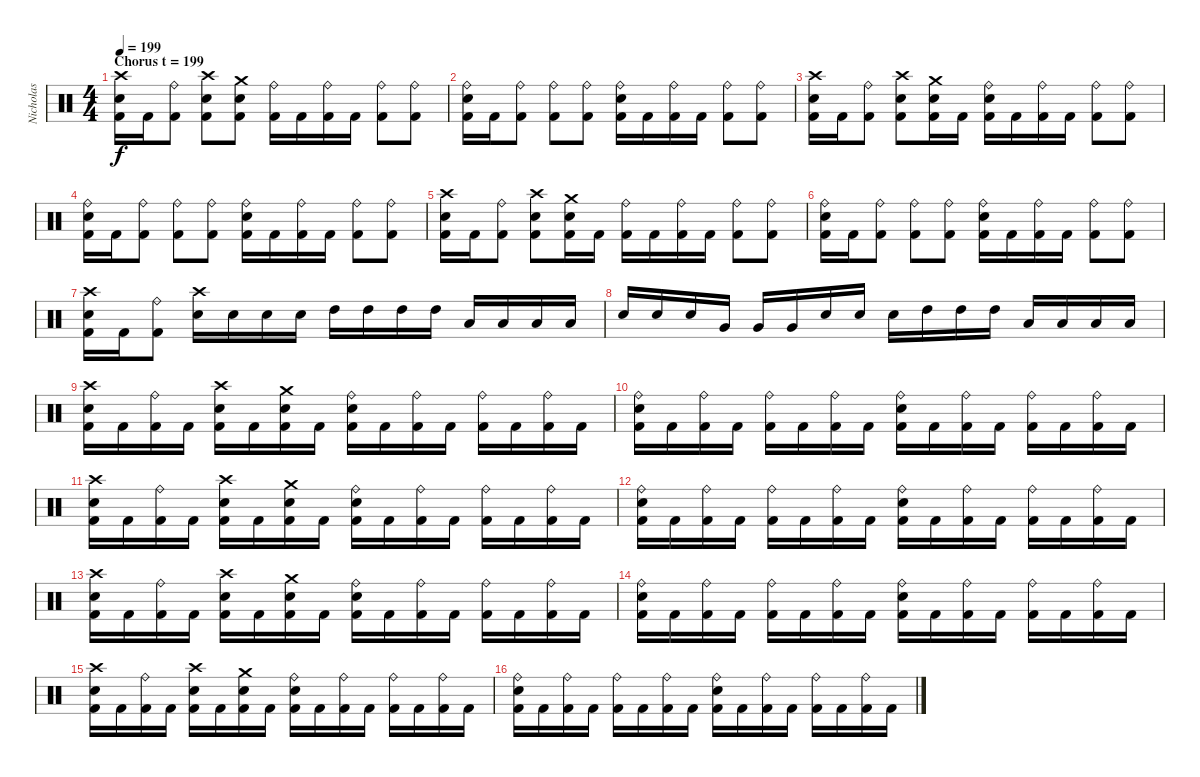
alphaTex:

\track ("Nicholas" "Nicholas") {instrument percussion}
\staff {score}
\articulation defaults
\ts (4 4)
\section ("" "Chorus t = 199")
\tempo 199
\clef neutral
\ks c
("Crash high (hit)" "Electric Snare (hit)" "Kick (hit) 2").16{dy f} "Kick (hit) 2".16 ("Ride (bell)" "Kick (hit) 2").8 ("Crash high (hit)" "Electric Snare (hit)" "Kick (hit) 2").8 ("Crash medium (hit)" "Electric Snare (hit)" "Kick (hit) 2").8 ("Ride (bell)" "Kick (hit) 2").16 "Kick (hit) 2".16 ("Ride (bell)" "Kick (hit) 2").16 "Kick (hit) 2".16 ("Ride (bell)" "Kick (hit) 2").8 ("Ride (bell)" "Kick (hit) 2").8 |
("Ride (bell)" "Electric Snare (hit)" "Kick (hit) 2").16 "Kick (hit) 2".16 ("Ride (bell)" "Kick (hit) 2").8 ("Ride (bell)" "Kick (hit) 2").8 ("Ride (bell)" "Kick (hit) 2").8 ("Ride (bell)" "Electric Snare (hit)" "Kick (hit) 2").16 "Kick (hit) 2".16 ("Ride (bell)" "Kick (hit) 2").16 "Kick (hit) 2".16 ("Ride (bell)" "Kick (hit) 2").8 ("Ride (bell)" "Kick (hit) 2").8 |
("Crash high (hit)" "Electric Snare (hit)" "Kick (hit) 2").16 "Kick (hit) 2".16 ("Ride (bell)" "Kick (hit) 2").8 ("Crash high (hit)" "Electric Snare (hit)" "Kick (hit) 2").8 ("Crash medium (hit)" "Electric Snare (hit)" "Kick (hit) 2").16 "Kick (hit) 2".16 ("Ride (bell)" "Electric Snare (hit)" "Kick (hit) 2").16 "Kick (hit) 2".16 ("Ride (bell)" "Kick (hit) 2").16 "Kick (hit) 2".16 ("Ride (bell)" "Kick (hit) 2").8 ("Ride (bell)" "Kick (hit) 2").8 |
("Ride (bell)" "Electric Snare (hit)" "Kick (hit) 2").16 "Kick (hit) 2".16 ("Ride (bell)" "Kick (hit) 2").8 ("Ride (bell)" "Kick (hit) 2").8 ("Ride (bell)" "Kick (hit) 2").8 ("Ride (bell)" "Electric Snare (hit)" "Kick (hit) 2").16 "Kick (hit) 2".16 ("Ride (bell)" "Kick (hit) 2").16 "Kick (hit) 2".16 ("Ride (bell)" "Kick (hit) 2").8 ("Ride (bell)" "Kick (hit) 2").8 |
("Crash high (hit)" "Electric Snare (hit)" "Kick (hit) 2").16 "Kick (hit) 2".16 ("Ride (bell)" "Kick (hit) 2").8 ("Crash high (hit)" "Electric Snare (hit)" "Kick (hit) 2").8 ("Crash medium (hit)" "Electric Snare (hit)" "Kick (hit) 2").16 "Kick (hit) 2".16 ("Ride (bell)" "Kick (hit) 2").16 "Kick (hit) 2".16 ("Ride (bell)" "Kick (hit) 2").16 "Kick (hit) 2".16 ("Ride (bell)" "Kick (hit) 2").8 ("Ride (bell)" "Kick (hit) 2").8 |
("Ride (bell)" "Electric Snare (hit)" "Kick (hit) 2").16 "Kick (hit) 2".16 ("Ride (bell)" "Kick (hit) 2").8 ("Ride (bell)" "Kick (hit) 2").8 ("Ride (bell)" "Kick (hit) 2").8 ("Ride (bell)" "Electric Snare (hit)" "Kick (hit) 2").16 "Kick (hit) 2".16 ("Ride (bell)" "Kick (hit) 2").16 "Kick (hit) 2".16 ("Ride (bell)" "Kick (hit) 2").8 ("Ride (bell)" "Kick (hit) 2").8 |
("Crash high (hit)" "Electric Snare (hit)" "Kick (hit) 2").16 "Kick (hit) 2".16 ("Ride (bell)" "Kick (hit) 2").8 ("Crash high (hit)" "Electric Snare (hit)").16 "Electric Snare (hit)".16 "Electric Snare (hit)".16 "Electric Snare (hit)".16 "High Tom (hit)".16 "High Tom (hit)".16 "High Tom (hit)".16 "High Tom (hit)".16 "Low Tom (hit)".16 "Low Tom (hit)".16 "Low Tom (hit)".16 "Low Tom (hit)".16 |
"Electric Snare (hit)".16 "Electric Snare (hit)".16 "Electric Snare (hit)".16 "Very Low Tom (hit)".16 "Very Low Tom (hit)".16 "Very Low Tom (hit)".16 "Electric Snare (hit)".16 "Electric Snare (hit)".16 "Electric Snare (hit)".16 "High Tom (hit)".16 "High Tom (hit)".16 "High Tom (hit)".16 "Low Tom (hit)".16 "Low Tom (hit)".16 "Low Tom (hit)".16 "Low Tom (hit)".16 |
("Crash high (hit)" "Electric Snare (hit)" "Kick (hit) 2").16 "Kick (hit) 2".16 ("Ride (bell)" "Kick (hit) 2").16 "Kick (hit) 2".16 ("Crash high (hit)" "Electric Snare (hit)" "Kick (hit) 2").16 "Kick (hit) 2".16 ("Crash medium (hit)" "Electric Snare (hit)" "Kick (hit) 2").16 "Kick (hit) 2".16 ("Ride (bell)" "Electric Snare (hit)" "Kick (hit) 2").16 "Kick (hit) 2".16 ("Ride (bell)" "Kick (hit) 2").16 "Kick (hit) 2".16 ("Ride (bell)" "Kick (hit) 2").16 "Kick (hit) 2".16 ("Ride (bell)" "Kick (hit) 2").16 "Kick (hit) 2".16 |
("Ride (bell)" "Electric Snare (hit)" "Kick (hit) 2").16 "Kick (hit) 2".16 ("Ride (bell)" "Kick (hit) 2").16 "Kick (hit) 2".16 ("Ride (bell)" "Kick (hit) 2").16 "Kick (hit) 2".16 ("Ride (bell)" "Kick (hit) 2").16 "Kick (hit) 2".16 ("Ride (bell)" "Electric Snare (hit)" "Kick (hit) 2").16 "Kick (hit) 2".16 ("Ride (bell)" "Kick (hit) 2").16 "Kick (hit) 2".16 ("Ride (bell)" "Kick (hit) 2").16 "Kick (hit) 2".16 ("Ride (bell)" "Kick (hit) 2").16 "Kick (hit) 2".16 |
("Crash high (hit)" "Electric Snare (hit)" "Kick (hit) 2").16 "Kick (hit) 2".16 ("Ride (bell)" "Kick (hit) 2").16 "Kick (hit) 2".16 ("Crash high (hit)" "Electric Snare (hit)" "Kick (hit) 2").16 "Kick (hit) 2".16 ("Crash medium (hit)" "Electric Snare (hit)" "Kick (hit) 2").16 "Kick (hit) 2".16 ("Ride (bell)" "Electric Snare (hit)" "Kick (hit) 2").16 "Kick (hit) 2".16 ("Ride (bell)" "Kick (hit) 2").16 "Kick (hit) 2".16 ("Ride (bell)" "Kick (hit) 2").16 "Kick (hit) 2".16 ("Ride (bell)" "Kick (hit) 2").16 "Kick (hit) 2".16 |
("Ride (bell)" "Electric Snare (hit)" "Kick (hit) 2").16 "Kick (hit) 2".16 ("Ride (bell)" "Kick (hit) 2").16 "Kick (hit) 2".16 ("Ride (bell)" "Kick (hit) 2").16 "Kick (hit) 2".16 ("Ride (bell)" "Kick (hit) 2").16 "Kick (hit) 2".16 ("Ride (bell)" "Electric Snare (hit)" "Kick (hit) 2").16 "Kick (hit) 2".16 ("Ride (bell)" "Kick (hit) 2").16 "Kick (hit) 2".16 ("Ride (bell)" "Kick (hit) 2").16 "Kick (hit) 2".16 ("Ride (bell)" "Kick (hit) 2").16 "Kick (hit) 2".16 |
("Crash high (hit)" "Electric Snare (hit)" "Kick (hit) 2").16 "Kick (hit) 2".16 ("Ride (bell)" "Kick (hit) 2").16 "Kick (hit) 2".16 ("Crash high (hit)" "Electric Snare (hit)" "Kick (hit) 2").16 "Kick (hit) 2".16 ("Crash medium (hit)" "Electric Snare (hit)" "Kick (hit) 2").16 "Kick (hit) 2".16 ("Ride (bell)" "Electric Snare (hit)" "Kick (hit) 2").16 "Kick (hit) 2".16 ("Ride (bell)" "Kick (hit) 2").16 "Kick (hit) 2".16 ("Ride (bell)" "Kick (hit) 2").16 "Kick (hit) 2".16 ("Ride (bell)" "Kick (hit) 2").16 "Kick (hit) 2".16 |
("Ride (bell)" "Electric Snare (hit)" "Kick (hit) 2").16 "Kick (hit) 2".16 ("Ride (bell)" "Kick (hit) 2").16 "Kick (hit) 2".16 ("Ride (bell)" "Kick (hit) 2").16 "Kick (hit) 2".16 ("Ride (bell)" "Kick (hit) 2").16 "Kick (hit) 2".16 ("Ride (bell)" "Electric Snare (hit)" "Kick (hit) 2").16 "Kick (hit) 2".16 ("Ride (bell)" "Kick (hit) 2").16 "Kick (hit) 2".16 ("Ride (bell)" "Kick (hit) 2").16 "Kick (hit) 2".16 ("Ride (bell)" "Kick (hit) 2").16 "Kick (hit) 2".16 |
("Crash high (hit)" "Electric Snare (hit)" "Kick (hit) 2").16 "Kick (hit) 2".16 ("Ride (bell)" "Kick (hit) 2").16 "Kick (hit) 2".16 ("Crash high (hit)" "Electric Snare (hit)" "Kick (hit) 2").16 "Kick (hit) 2".16 ("Crash medium (hit)" "Electric Snare (hit)" "Kick (hit) 2").16 "Kick (hit) 2".16 ("Ride (bell)" "Electric Snare (hit)" "Kick (hit) 2").16 "Kick (hit) 2".16 ("Ride (bell)" "Kick (hit) 2").16 "Kick (hit) 2".16 ("Ride (bell)" "Kick (hit) 2").16 "Kick (hit) 2".16 ("Ride (bell)" "Kick (hit) 2").16 "Kick (hit) 2".16 |
("Ride (bell)" "Electric Snare (hit)" "Kick (hit) 2").16 "Kick (hit) 2".16 ("Ride (bell)" "Kick (hit) 2").16 "Kick (hit) 2".16 ("Ride (bell)" "Kick (hit) 2").16 "Kick (hit) 2".16 ("Ride (bell)" "Kick (hit) 2").16 "Kick (hit) 2".16 ("Ride (bell)" "Electric Snare (hit)" "Kick (hit) 2").16 "Kick (hit) 2".16 ("Ride (bell)" "Kick (hit) 2").16 "Kick (hit) 2".16 ("Ride (bell)" "Kick (hit) 2").16 "Kick (hit) 2".16 ("Ride (bell)" "Kick (hit) 2").16 "Kick (hit) 2".16
